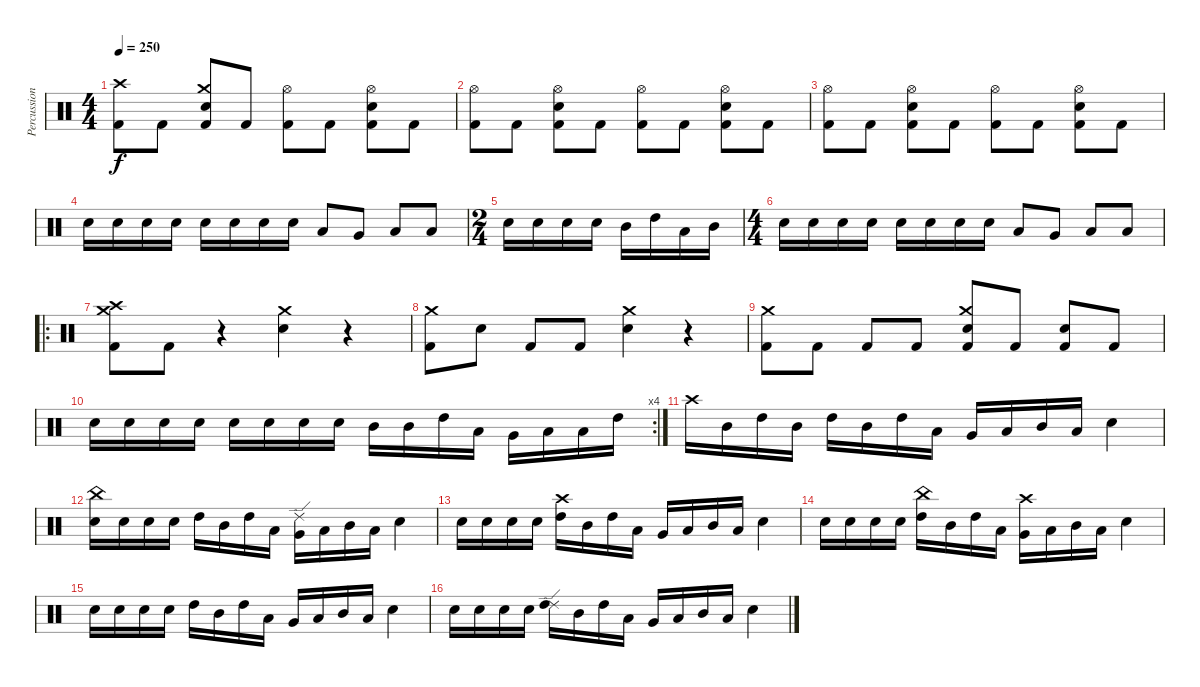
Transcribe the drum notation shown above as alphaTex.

\track ("Percussion" "Percussion") {instrument percussion}
\staff {score}
\articulation defaults
\ts (4 4)
\tempo 250
\clef neutral
\ks c
("Crash high (hit)" "Kick (hit) 2").8{dy f} "Kick (hit) 2".8 ("Crash medium (hit)" "Snare (hit) 2" "Kick (hit) 2").8 "Kick (hit) 2".8 ("Hi-Hat (open)" "Kick (hit) 2").8 "Kick (hit) 2".8 ("Hi-Hat (open)" "Snare (hit) 2" "Kick (hit) 2").8 "Kick (hit) 2".8 |
("Hi-Hat (open)" "Kick (hit) 2").8 "Kick (hit) 2".8 ("Hi-Hat (open)" "Snare (hit) 2" "Kick (hit) 2").8 "Kick (hit) 2".8 ("Hi-Hat (open)" "Kick (hit) 2").8 "Kick (hit) 2".8 ("Hi-Hat (open)" "Snare (hit) 2" "Kick (hit) 2").8 "Kick (hit) 2".8 |
("Hi-Hat (open)" "Kick (hit) 2").8 "Kick (hit) 2".8 ("Hi-Hat (open)" "Snare (hit) 2" "Kick (hit) 2").8 "Kick (hit) 2".8 ("Hi-Hat (open)" "Kick (hit) 2").8 "Kick (hit) 2".8 ("Hi-Hat (open)" "Snare (hit) 2" "Kick (hit) 2").8 "Kick (hit) 2".8 |
"Snare (hit) 2".16 "Snare (hit) 2".16 "Snare (hit) 2".16 "Snare (hit) 2".16 "Snare (hit) 2".16 "Snare (hit) 2".16 "Snare (hit) 2".16 "Snare (hit) 2".16 "Low Tom (hit)".8 "Very Low Tom (hit)".8 "Low Floor Tom (hit)".8 "Low Tom (hit)".8 |
\ts (2 4)
"Snare (hit) 2".16 "Snare (hit) 2".16 "Snare (hit) 2".16 "Snare (hit) 2".16 "Mid Tom (hit)".16 "High Tom (hit)".16 "Low Floor Tom (hit)".16 "Mid Tom (hit)".16 |
\ts (4 4)
"Snare (hit) 2".16 "Snare (hit) 2".16 "Snare (hit) 2".16 "Snare (hit) 2".16 "Snare (hit) 2".16 "Snare (hit) 2".16 "Snare (hit) 2".16 "Snare (hit) 2".16 "Low Tom (hit)".8 "Very Low Tom (hit)".8 "Low Floor Tom (hit)".8 "Low Tom (hit)".8 |
\ro
("Crash high (hit)" "Crash medium (hit)" "Kick (hit) 2").8 "Kick (hit) 2".8 r.4 ("Crash medium (hit)" "Snare (hit) 2").4 r.4 |
("Crash medium (hit)" "Kick (hit) 2").8 "Snare (hit) 2".8 "Kick (hit) 2".8 "Kick (hit) 2".8 ("Crash medium (hit)" "Snare (hit) 2").4 r.4 |
("Crash medium (hit)" "Kick (hit) 2").8 "Kick (hit) 2".8 "Kick (hit) 2".8 "Kick (hit) 2".8 ("Crash medium (hit)" "Snare (hit) 2" "Kick (hit) 2").8 "Kick (hit) 2".8 ("Snare (hit) 2" "Kick (hit) 2").8 "Kick (hit) 2".8 |
\rc 4 "Snare (hit) 2".16 "Snare (hit) 2".16 "Snare (hit) 2".16 "Snare (hit) 2".16 "Snare (hit) 2".16 "Snare (hit) 2".16 "Snare (hit) 2".16 "Snare (hit) 2".16 "Mid Tom (hit)".16 "Mid Tom (hit)".16 "High Tom (hit)".16 "Low Tom (hit)".16 "Very Low Tom (hit)".16 "Low Floor Tom (hit)".16 "Low Tom (hit)".16 "High Tom (hit)".16
|
"Crash high (hit)".16 "Mid Tom (hit)".16 "High Tom (hit)".16 "Mid Tom (hit)".16 "High Tom (hit)".16 "Mid Tom (hit)".16 "High Tom (hit)".16 "Low Tom (hit)".16 "Very Low Tom (hit)".16 "Low Floor Tom (hit)".16 "Mid Tom (hit)".16 "Low Floor Tom (hit)".16 "Snare (hit) 2".4 |
("China (hit)" "Snare (hit) 2").16 "Snare (hit) 2".16 "Snare (hit) 2".16 "Snare (hit) 2".16 "High Tom (hit)".16 "Mid Tom (hit)".16 "High Tom (hit)".16 "Low Tom (hit)".16 ("Ride (edge) 2" "Very Low Tom (hit)").16 "Low Floor Tom (hit)".16 "Mid Tom (hit)".16 "Low Floor Tom (hit)".16 "Snare (hit) 2".4 |
"Snare (hit) 2".16 "Snare (hit) 2".16 "Snare (hit) 2".16 "Snare (hit) 2".16 ("Crash high (hit)" "High Tom (hit)").16 "Mid Tom (hit)".16 "High Tom (hit)".16 "Low Tom (hit)".16 "Very Low Tom (hit)".16 "Low Floor Tom (hit)".16 "Mid Tom (hit)".16 "Low Floor Tom (hit)".16 "Snare (hit) 2".4 |
"Snare (hit) 2".16 "Snare (hit) 2".16 "Snare (hit) 2".16 "Snare (hit) 2".16 ("China (hit)" "High Tom (hit)").16 "Mid Tom (hit)".16 "High Tom (hit)".16 "Low Tom (hit)".16 ("Crash high (hit)" "Very Low Tom (hit)").16 "Low Floor Tom (hit)".16 "Mid Tom (hit)".16 "Low Floor Tom (hit)".16 "Snare (hit) 2".4 |
"Snare (hit) 2".16 "Snare (hit) 2".16 "Snare (hit) 2".16 "Snare (hit) 2".16 "High Tom (hit)".16 "Mid Tom (hit)".16 "High Tom (hit)".16 "Low Tom (hit)".16 "Very Low Tom (hit)".16 "Low Floor Tom (hit)".16 "Mid Tom (hit)".16 "Low Floor Tom (hit)".16 "Snare (hit) 2".4 |
"Snare (hit) 2".16 "Snare (hit) 2".16 "Snare (hit) 2".16 "Snare (hit) 2".16 ("Ride (edge) 2" "High Tom (hit)").16 "Mid Tom (hit)".16 "High Tom (hit)".16 "Low Tom (hit)".16 "Very Low Tom (hit)".16 "Low Floor Tom (hit)".16 "Mid Tom (hit)".16 "Low Floor Tom (hit)".16 "Snare (hit) 2".4
